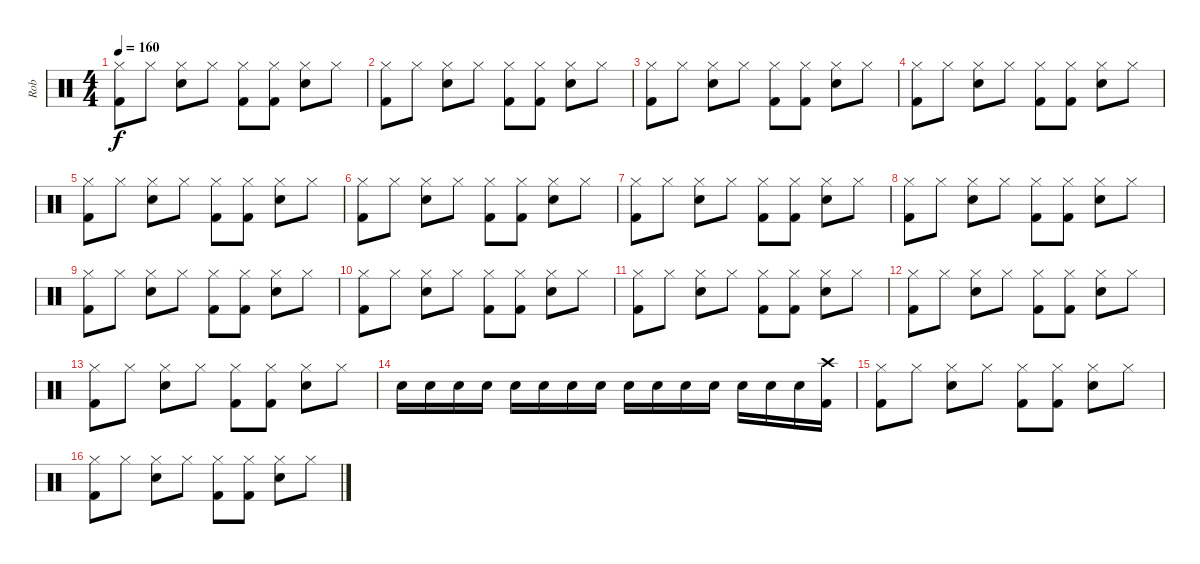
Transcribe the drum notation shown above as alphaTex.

\track ("Rob" "Rob") {instrument percussion}
\staff {score}
\articulation defaults
\ts (4 4)
\tempo 160
\clef neutral
\ks c
("Hi-Hat (closed)" "Kick (hit) 2").8{dy f} "Hi-Hat (closed)".8 ("Hi-Hat (closed)" "Electric Snare (hit)").8 "Hi-Hat (closed)".8 ("Hi-Hat (closed)" "Kick (hit) 2").8 ("Hi-Hat (closed)" "Kick (hit) 2").8 ("Hi-Hat (closed)" "Electric Snare (hit)").8 "Hi-Hat (closed)".8 |
("Hi-Hat (closed)" "Kick (hit) 2").8 "Hi-Hat (closed)".8 ("Hi-Hat (closed)" "Electric Snare (hit)").8 "Hi-Hat (closed)".8 ("Hi-Hat (closed)" "Kick (hit) 2").8 ("Hi-Hat (closed)" "Kick (hit) 2").8 ("Hi-Hat (closed)" "Electric Snare (hit)").8 "Hi-Hat (closed)".8 |
("Hi-Hat (closed)" "Kick (hit) 2").8 "Hi-Hat (closed)".8 ("Hi-Hat (closed)" "Electric Snare (hit)").8 "Hi-Hat (closed)".8 ("Hi-Hat (closed)" "Kick (hit) 2").8 ("Hi-Hat (closed)" "Kick (hit) 2").8 ("Hi-Hat (closed)" "Electric Snare (hit)").8 "Hi-Hat (closed)".8 |
("Hi-Hat (closed)" "Kick (hit) 2").8 "Hi-Hat (closed)".8 ("Hi-Hat (closed)" "Electric Snare (hit)").8 "Hi-Hat (closed)".8 ("Hi-Hat (closed)" "Kick (hit) 2").8 ("Hi-Hat (closed)" "Kick (hit) 2").8 ("Hi-Hat (closed)" "Electric Snare (hit)").8 "Hi-Hat (closed)".8 |
("Hi-Hat (closed)" "Kick (hit) 2").8 "Hi-Hat (closed)".8 ("Hi-Hat (closed)" "Electric Snare (hit)").8 "Hi-Hat (closed)".8 ("Hi-Hat (closed)" "Kick (hit) 2").8 ("Hi-Hat (closed)" "Kick (hit) 2").8 ("Hi-Hat (closed)" "Electric Snare (hit)").8 "Hi-Hat (closed)".8 |
("Hi-Hat (closed)" "Kick (hit) 2").8 "Hi-Hat (closed)".8 ("Hi-Hat (closed)" "Electric Snare (hit)").8 "Hi-Hat (closed)".8 ("Hi-Hat (closed)" "Kick (hit) 2").8 ("Hi-Hat (closed)" "Kick (hit) 2").8 ("Hi-Hat (closed)" "Electric Snare (hit)").8 "Hi-Hat (closed)".8 |
("Hi-Hat (closed)" "Kick (hit) 2").8 "Hi-Hat (closed)".8 ("Hi-Hat (closed)" "Electric Snare (hit)").8 "Hi-Hat (closed)".8 ("Hi-Hat (closed)" "Kick (hit) 2").8 ("Hi-Hat (closed)" "Kick (hit) 2").8 ("Hi-Hat (closed)" "Electric Snare (hit)").8 "Hi-Hat (closed)".8 |
("Hi-Hat (closed)" "Kick (hit) 2").8 "Hi-Hat (closed)".8 ("Hi-Hat (closed)" "Electric Snare (hit)").8 "Hi-Hat (closed)".8 ("Hi-Hat (closed)" "Kick (hit) 2").8 ("Hi-Hat (closed)" "Kick (hit) 2").8 ("Hi-Hat (closed)" "Electric Snare (hit)").8 "Hi-Hat (closed)".8 |
("Hi-Hat (closed)" "Kick (hit) 2").8 "Hi-Hat (closed)".8 ("Hi-Hat (closed)" "Electric Snare (hit)").8 "Hi-Hat (closed)".8 ("Hi-Hat (closed)" "Kick (hit) 2").8 ("Hi-Hat (closed)" "Kick (hit) 2").8 ("Hi-Hat (closed)" "Electric Snare (hit)").8 "Hi-Hat (closed)".8 |
("Hi-Hat (closed)" "Kick (hit) 2").8 "Hi-Hat (closed)".8 ("Hi-Hat (closed)" "Electric Snare (hit)").8 "Hi-Hat (closed)".8 ("Hi-Hat (closed)" "Kick (hit) 2").8 ("Hi-Hat (closed)" "Kick (hit) 2").8 ("Hi-Hat (closed)" "Electric Snare (hit)").8 "Hi-Hat (closed)".8 |
("Hi-Hat (closed)" "Kick (hit) 2").8 "Hi-Hat (closed)".8 ("Hi-Hat (closed)" "Electric Snare (hit)").8 "Hi-Hat (closed)".8 ("Hi-Hat (closed)" "Kick (hit) 2").8 ("Hi-Hat (closed)" "Kick (hit) 2").8 ("Hi-Hat (closed)" "Electric Snare (hit)").8 "Hi-Hat (closed)".8 |
("Hi-Hat (closed)" "Kick (hit) 2").8 "Hi-Hat (closed)".8 ("Hi-Hat (closed)" "Electric Snare (hit)").8 "Hi-Hat (closed)".8 ("Hi-Hat (closed)" "Kick (hit) 2").8 ("Hi-Hat (closed)" "Kick (hit) 2").8 ("Hi-Hat (closed)" "Electric Snare (hit)").8 "Hi-Hat (closed)".8 |
("Hi-Hat (closed)" "Kick (hit) 2").8 "Hi-Hat (closed)".8 ("Hi-Hat (closed)" "Electric Snare (hit)").8 "Hi-Hat (closed)".8 ("Hi-Hat (closed)" "Kick (hit) 2").8 ("Hi-Hat (closed)" "Kick (hit) 2").8 ("Hi-Hat (closed)" "Electric Snare (hit)").8 "Hi-Hat (closed)".8 |
"Electric Snare (hit)".16 "Electric Snare (hit)".16 "Electric Snare (hit)".16 "Electric Snare (hit)".16 "Electric Snare (hit)".16 "Electric Snare (hit)".16 "Electric Snare (hit)".16 "Electric Snare (hit)".16 "Electric Snare (hit)".16 "Electric Snare (hit)".16 "Electric Snare (hit)".16 "Electric Snare (hit)".16 "Electric Snare (hit)".16 "Electric Snare (hit)".16 "Electric Snare (hit)".16 ("Crash high (hit)" "Kick (hit) 2").16 |
("Hi-Hat (closed)" "Kick (hit) 2").8 "Hi-Hat (closed)".8 ("Hi-Hat (closed)" "Electric Snare (hit)").8 "Hi-Hat (closed)".8 ("Hi-Hat (closed)" "Kick (hit) 2").8 ("Hi-Hat (closed)" "Kick (hit) 2").8 ("Hi-Hat (closed)" "Electric Snare (hit)").8 "Hi-Hat (closed)".8 |
("Hi-Hat (closed)" "Kick (hit) 2").8 "Hi-Hat (closed)".8 ("Hi-Hat (closed)" "Electric Snare (hit)").8 "Hi-Hat (closed)".8 ("Hi-Hat (closed)" "Kick (hit) 2").8 ("Hi-Hat (closed)" "Kick (hit) 2").8 ("Hi-Hat (closed)" "Electric Snare (hit)").8 "Hi-Hat (closed)".8
